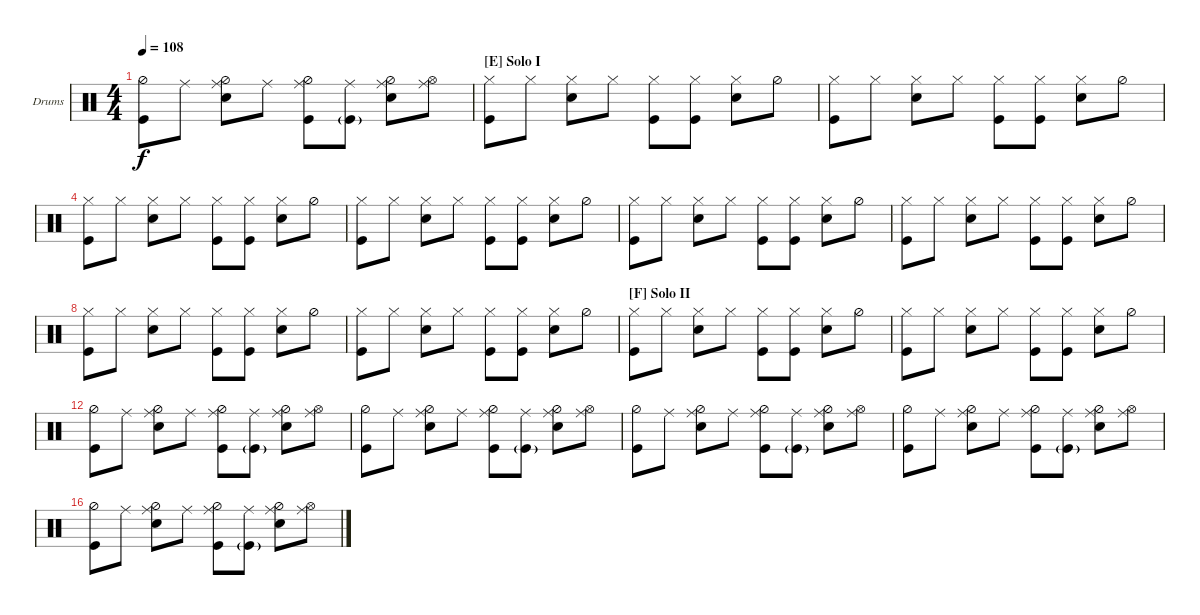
\defaultSystemsLayout 4
\bracketExtendMode nobrackets
\firstSystemTrackNameOrientation horizontal
\otherSystemsTrackNameOrientation horizontal
\defaultBarNumberDisplay FirstOfSystem
\track ("Drumkit" "Drums") {instrument percussion}
\staff {score}
\articulation defaults
\ts (4 4)
\tempo 108
\clef neutral
\ks c
("Kick (hit)" "Hi-Hat (half)").8{dy f} "Ride (middle)".8 ("Snare (hit) 2" "Hi-Hat (half)" "Ride (middle)").8 "Ride (middle)".8 ("Kick (hit)" "Hi-Hat (half)" "Ride (middle)").8 ("Kick (hit)"{g} "Ride (middle)").8 ("Snare (hit) 2" "Hi-Hat (half)" "Ride (middle)").8 ("Hi-Hat (open)" "Ride (middle)").8 |
\section ("E" "Solo I")
("Kick (hit)" "Hi-Hat (closed)").8 "Hi-Hat (closed)".8 ("Snare (hit) 2" "Hi-Hat (closed)").8 "Hi-Hat (closed)".8 ("Kick (hit)" "Hi-Hat (closed)").8 ("Hi-Hat (closed)" "Kick (hit)").8 ("Snare (hit) 2" "Hi-Hat (closed)").8 "Hi-Hat (half)".8 |
("Kick (hit)" "Hi-Hat (closed)").8 "Hi-Hat (closed)".8 ("Snare (hit) 2" "Hi-Hat (closed)").8 "Hi-Hat (closed)".8 ("Kick (hit)" "Hi-Hat (closed)").8 ("Hi-Hat (closed)" "Kick (hit)").8 ("Snare (hit) 2" "Hi-Hat (closed)").8 "Hi-Hat (half)".8 |
("Kick (hit)" "Hi-Hat (closed)").8 "Hi-Hat (closed)".8 ("Snare (hit) 2" "Hi-Hat (closed)").8 "Hi-Hat (closed)".8 ("Hi-Hat (closed)" "Kick (hit)").8 ("Hi-Hat (closed)" "Kick (hit)").8 ("Snare (hit) 2" "Hi-Hat (closed)").8 "Hi-Hat (half)".8 |
("Kick (hit)" "Hi-Hat (closed)").8 "Hi-Hat (closed)".8 ("Snare (hit) 2" "Hi-Hat (closed)").8 "Hi-Hat (closed)".8 ("Kick (hit)" "Hi-Hat (closed)").8 ("Hi-Hat (closed)" "Kick (hit)").8 ("Snare (hit) 2" "Hi-Hat (closed)").8 "Hi-Hat (half)".8 |
("Kick (hit)" "Hi-Hat (closed)").8 "Hi-Hat (closed)".8 ("Snare (hit) 2" "Hi-Hat (closed)").8 "Hi-Hat (closed)".8 ("Hi-Hat (closed)" "Kick (hit)").8 ("Hi-Hat (closed)" "Kick (hit)").8 ("Snare (hit) 2" "Hi-Hat (closed)").8 "Hi-Hat (half)".8 |
("Kick (hit)" "Hi-Hat (closed)").8 "Hi-Hat (closed)".8 ("Snare (hit) 2" "Hi-Hat (closed)").8 "Hi-Hat (closed)".8 ("Kick (hit)" "Hi-Hat (closed)").8 ("Hi-Hat (closed)" "Kick (hit)").8 ("Snare (hit) 2" "Hi-Hat (closed)").8 "Hi-Hat (half)".8 |
("Kick (hit)" "Hi-Hat (closed)").8 "Hi-Hat (closed)".8 ("Snare (hit) 2" "Hi-Hat (closed)").8 "Hi-Hat (closed)".8 ("Hi-Hat (closed)" "Kick (hit)").8 ("Hi-Hat (closed)" "Kick (hit)").8 ("Snare (hit) 2" "Hi-Hat (closed)").8 "Hi-Hat (half)".8 |
("Kick (hit)" "Hi-Hat (closed)").8 "Hi-Hat (closed)".8 ("Snare (hit) 2" "Hi-Hat (closed)").8 "Hi-Hat (closed)".8 ("Hi-Hat (closed)" "Kick (hit)").8 ("Hi-Hat (closed)" "Kick (hit)").8 ("Snare (hit) 2" "Hi-Hat (closed)").8 "Hi-Hat (half)".8 |
\section ("F" "Solo II")
("Kick (hit)" "Hi-Hat (closed)").8 "Hi-Hat (closed)".8 ("Snare (hit) 2" "Hi-Hat (closed)").8 "Hi-Hat (closed)".8 ("Hi-Hat (closed)" "Kick (hit)").8 ("Hi-Hat (closed)" "Kick (hit)").8 ("Snare (hit) 2" "Hi-Hat (closed)").8 "Hi-Hat (half)".8 |
("Kick (hit)" "Hi-Hat (closed)").8 "Hi-Hat (closed)".8 ("Snare (hit) 2" "Hi-Hat (closed)").8 "Hi-Hat (closed)".8 ("Hi-Hat (closed)" "Kick (hit)").8 ("Hi-Hat (closed)" "Kick (hit)").8 ("Snare (hit) 2" "Hi-Hat (closed)").8 "Hi-Hat (half)".8 |
("Kick (hit)" "Hi-Hat (half)").8 "Ride (middle)".8 ("Snare (hit) 2" "Hi-Hat (half)" "Ride (middle)").8 "Ride (middle)".8 ("Kick (hit)" "Hi-Hat (half)" "Ride (middle)").8 ("Kick (hit)"{g} "Ride (middle)").8 ("Snare (hit) 2" "Hi-Hat (half)" "Ride (middle)").8 ("Hi-Hat (open)" "Ride (middle)").8 |
("Kick (hit)" "Hi-Hat (half)").8 "Ride (middle)".8 ("Snare (hit) 2" "Hi-Hat (half)" "Ride (middle)").8 "Ride (middle)".8 ("Kick (hit)" "Hi-Hat (half)" "Ride (middle)").8 ("Kick (hit)"{g} "Ride (middle)").8 ("Snare (hit) 2" "Hi-Hat (half)" "Ride (middle)").8 ("Hi-Hat (open)" "Ride (middle)").8 |
("Kick (hit)" "Hi-Hat (half)").8 "Ride (middle)".8 ("Snare (hit) 2" "Hi-Hat (half)" "Ride (middle)").8 "Ride (middle)".8 ("Kick (hit)" "Hi-Hat (half)" "Ride (middle)").8 ("Kick (hit)"{g} "Ride (middle)").8 ("Snare (hit) 2" "Hi-Hat (half)" "Ride (middle)").8 ("Hi-Hat (open)" "Ride (middle)").8 |
("Kick (hit)" "Hi-Hat (half)").8 "Ride (middle)".8 ("Snare (hit) 2" "Hi-Hat (half)" "Ride (middle)").8 "Ride (middle)".8 ("Kick (hit)" "Hi-Hat (half)" "Ride (middle)").8 ("Kick (hit)"{g} "Ride (middle)").8 ("Snare (hit) 2" "Hi-Hat (half)" "Ride (middle)").8 ("Hi-Hat (open)" "Ride (middle)").8 |
("Kick (hit)" "Hi-Hat (half)").8 "Ride (middle)".8 ("Snare (hit) 2" "Hi-Hat (half)" "Ride (middle)").8 "Ride (middle)".8 ("Kick (hit)" "Hi-Hat (half)" "Ride (middle)").8 ("Kick (hit)"{g} "Ride (middle)").8 ("Snare (hit) 2" "Hi-Hat (half)" "Ride (middle)").8 ("Hi-Hat (open)" "Ride (middle)").8
